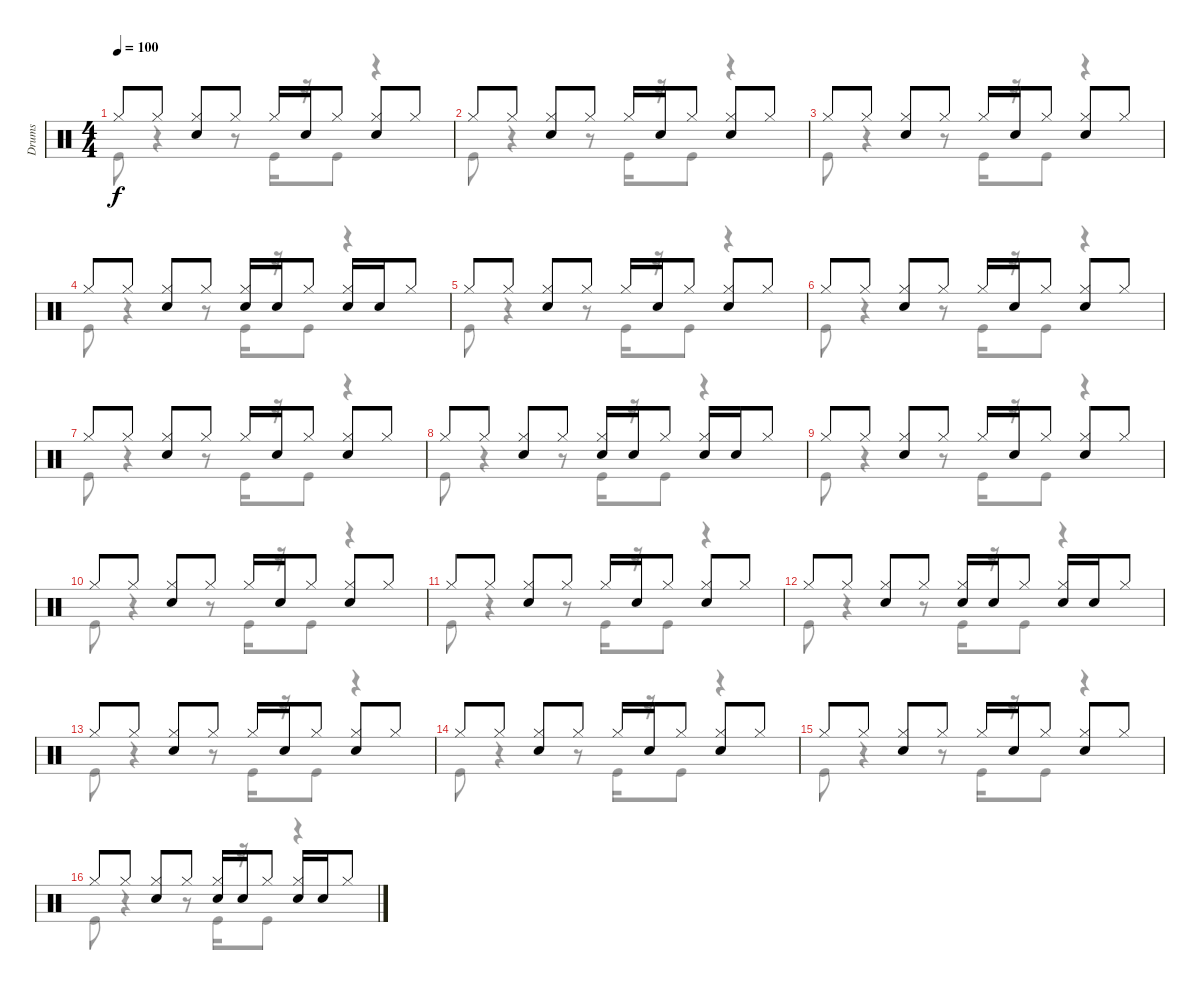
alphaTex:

\track ("Drums" "Drums") {instrument percussion}
\staff {score}
\articulation defaults
\voice
\ts (4 4)
\tempo 100
\clef neutral
\ks c "Hi-Hat (closed)".8{dy f} "Hi-Hat (closed)".8
("Hi-Hat (closed)" "Electric Snare (hit)").8 "Hi-Hat (closed)".8 "Hi-Hat (closed)".16 "Electric Snare (hit)".16 "Hi-Hat (closed)".8 ("Hi-Hat (closed)" "Electric Snare (hit)").8 "Hi-Hat (closed)".8 |
"Hi-Hat (closed)".8 "Hi-Hat (closed)".8 ("Hi-Hat (closed)" "Electric Snare (hit)").8 "Hi-Hat (closed)".8 "Hi-Hat (closed)".16 "Electric Snare (hit)".16 "Hi-Hat (closed)".8 ("Hi-Hat (closed)" "Electric Snare (hit)").8 "Hi-Hat (closed)".8 |
"Hi-Hat (closed)".8 "Hi-Hat (closed)".8 ("Hi-Hat (closed)" "Electric Snare (hit)").8 "Hi-Hat (closed)".8 "Hi-Hat (closed)".16 "Electric Snare (hit)".16 "Hi-Hat (closed)".8 ("Hi-Hat (closed)" "Electric Snare (hit)").8 "Hi-Hat (closed)".8 |
"Hi-Hat (closed)".8 "Hi-Hat (closed)".8 ("Hi-Hat (closed)" "Electric Snare (hit)").8 "Hi-Hat (closed)".8 ("Hi-Hat (closed)" "Electric Snare (hit)").16 "Electric Snare (hit)".16 "Hi-Hat (closed)".8 ("Hi-Hat (closed)" "Electric Snare (hit)").16 "Electric Snare (hit)".16 "Hi-Hat (closed)".8 |
"Hi-Hat (closed)".8 "Hi-Hat (closed)".8 ("Hi-Hat (closed)" "Electric Snare (hit)").8 "Hi-Hat (closed)".8 "Hi-Hat (closed)".16 "Electric Snare (hit)".16 "Hi-Hat (closed)".8 ("Hi-Hat (closed)" "Electric Snare (hit)").8 "Hi-Hat (closed)".8 |
"Hi-Hat (closed)".8 "Hi-Hat (closed)".8 ("Hi-Hat (closed)" "Electric Snare (hit)").8 "Hi-Hat (closed)".8 "Hi-Hat (closed)".16 "Electric Snare (hit)".16 "Hi-Hat (closed)".8 ("Hi-Hat (closed)" "Electric Snare (hit)").8 "Hi-Hat (closed)".8 |
"Hi-Hat (closed)".8 "Hi-Hat (closed)".8 ("Hi-Hat (closed)" "Electric Snare (hit)").8 "Hi-Hat (closed)".8 "Hi-Hat (closed)".16 "Electric Snare (hit)".16 "Hi-Hat (closed)".8 ("Hi-Hat (closed)" "Electric Snare (hit)").8 "Hi-Hat (closed)".8 |
"Hi-Hat (closed)".8 "Hi-Hat (closed)".8 ("Hi-Hat (closed)" "Electric Snare (hit)").8 "Hi-Hat (closed)".8 ("Hi-Hat (closed)" "Electric Snare (hit)").16 "Electric Snare (hit)".16 "Hi-Hat (closed)".8 ("Hi-Hat (closed)" "Electric Snare (hit)").16 "Electric Snare (hit)".16 "Hi-Hat (closed)".8 |
"Hi-Hat (closed)".8 "Hi-Hat (closed)".8 ("Hi-Hat (closed)" "Electric Snare (hit)").8 "Hi-Hat (closed)".8 "Hi-Hat (closed)".16 "Electric Snare (hit)".16 "Hi-Hat (closed)".8 ("Hi-Hat (closed)" "Electric Snare (hit)").8 "Hi-Hat (closed)".8 |
"Hi-Hat (closed)".8 "Hi-Hat (closed)".8 ("Hi-Hat (closed)" "Electric Snare (hit)").8 "Hi-Hat (closed)".8 "Hi-Hat (closed)".16 "Electric Snare (hit)".16 "Hi-Hat (closed)".8 ("Hi-Hat (closed)" "Electric Snare (hit)").8 "Hi-Hat (closed)".8 |
"Hi-Hat (closed)".8 "Hi-Hat (closed)".8 ("Hi-Hat (closed)" "Electric Snare (hit)").8 "Hi-Hat (closed)".8 "Hi-Hat (closed)".16 "Electric Snare (hit)".16 "Hi-Hat (closed)".8 ("Hi-Hat (closed)" "Electric Snare (hit)").8 "Hi-Hat (closed)".8 |
"Hi-Hat (closed)".8 "Hi-Hat (closed)".8 ("Hi-Hat (closed)" "Electric Snare (hit)").8 "Hi-Hat (closed)".8 ("Hi-Hat (closed)" "Electric Snare (hit)").16 "Electric Snare (hit)".16 "Hi-Hat (closed)".8 ("Hi-Hat (closed)" "Electric Snare (hit)").16 "Electric Snare (hit)".16 "Hi-Hat (closed)".8 |
"Hi-Hat (closed)".8 "Hi-Hat (closed)".8 ("Hi-Hat (closed)" "Electric Snare (hit)").8 "Hi-Hat (closed)".8 "Hi-Hat (closed)".16 "Electric Snare (hit)".16 "Hi-Hat (closed)".8 ("Hi-Hat (closed)" "Electric Snare (hit)").8 "Hi-Hat (closed)".8 |
"Hi-Hat (closed)".8 "Hi-Hat (closed)".8 ("Hi-Hat (closed)" "Electric Snare (hit)").8 "Hi-Hat (closed)".8 "Hi-Hat (closed)".16 "Electric Snare (hit)".16 "Hi-Hat (closed)".8 ("Hi-Hat (closed)" "Electric Snare (hit)").8 "Hi-Hat (closed)".8 |
"Hi-Hat (closed)".8 "Hi-Hat (closed)".8 ("Hi-Hat (closed)" "Electric Snare (hit)").8 "Hi-Hat (closed)".8 "Hi-Hat (closed)".16 "Electric Snare (hit)".16 "Hi-Hat (closed)".8 ("Hi-Hat (closed)" "Electric Snare (hit)").8 "Hi-Hat (closed)".8 |
"Hi-Hat (closed)".8 "Hi-Hat (closed)".8 ("Hi-Hat (closed)" "Electric Snare (hit)").8 "Hi-Hat (closed)".8 ("Hi-Hat (closed)" "Electric Snare (hit)").16 "Electric Snare (hit)".16 "Hi-Hat (closed)".8 ("Hi-Hat (closed)" "Electric Snare (hit)").16 "Electric Snare (hit)".16 "Hi-Hat (closed)".8
\voice
\clef neutral
\ottava regular
\simile none
\ks c "Kick (hit)".8{dy f}
r.4 r.8 "Kick (hit)".16 r.16 "Kick (hit)".8 r.4 |
"Kick (hit)".8 r.4 r.8 "Kick (hit)".16 r.16 "Kick (hit)".8 r.4 |
"Kick (hit)".8 r.4 r.8 "Kick (hit)".16 r.16 "Kick (hit)".8 r.4 |
"Kick (hit)".8 r.4 r.8 "Kick (hit)".16 r.16 "Kick (hit)".8 r.4 |
"Kick (hit)".8 r.4 r.8 "Kick (hit)".16 r.16 "Kick (hit)".8 r.4 |
"Kick (hit)".8 r.4 r.8 "Kick (hit)".16 r.16 "Kick (hit)".8 r.4 |
"Kick (hit)".8 r.4 r.8 "Kick (hit)".16 r.16 "Kick (hit)".8 r.4 |
"Kick (hit)".8 r.4 r.8 "Kick (hit)".16 r.16 "Kick (hit)".8 r.4 |
"Kick (hit)".8 r.4 r.8 "Kick (hit)".16 r.16 "Kick (hit)".8 r.4 |
"Kick (hit)".8 r.4 r.8 "Kick (hit)".16 r.16 "Kick (hit)".8 r.4 |
"Kick (hit)".8 r.4 r.8 "Kick (hit)".16 r.16 "Kick (hit)".8 r.4 |
"Kick (hit)".8 r.4 r.8 "Kick (hit)".16 r.16 "Kick (hit)".8 r.4 |
"Kick (hit)".8 r.4 r.8 "Kick (hit)".16 r.16 "Kick (hit)".8 r.4 |
"Kick (hit)".8 r.4 r.8 "Kick (hit)".16 r.16 "Kick (hit)".8 r.4 |
"Kick (hit)".8 r.4 r.8 "Kick (hit)".16 r.16 "Kick (hit)".8 r.4 |
"Kick (hit)".8 r.4 r.8 "Kick (hit)".16 r.16 "Kick (hit)".8 r.4
